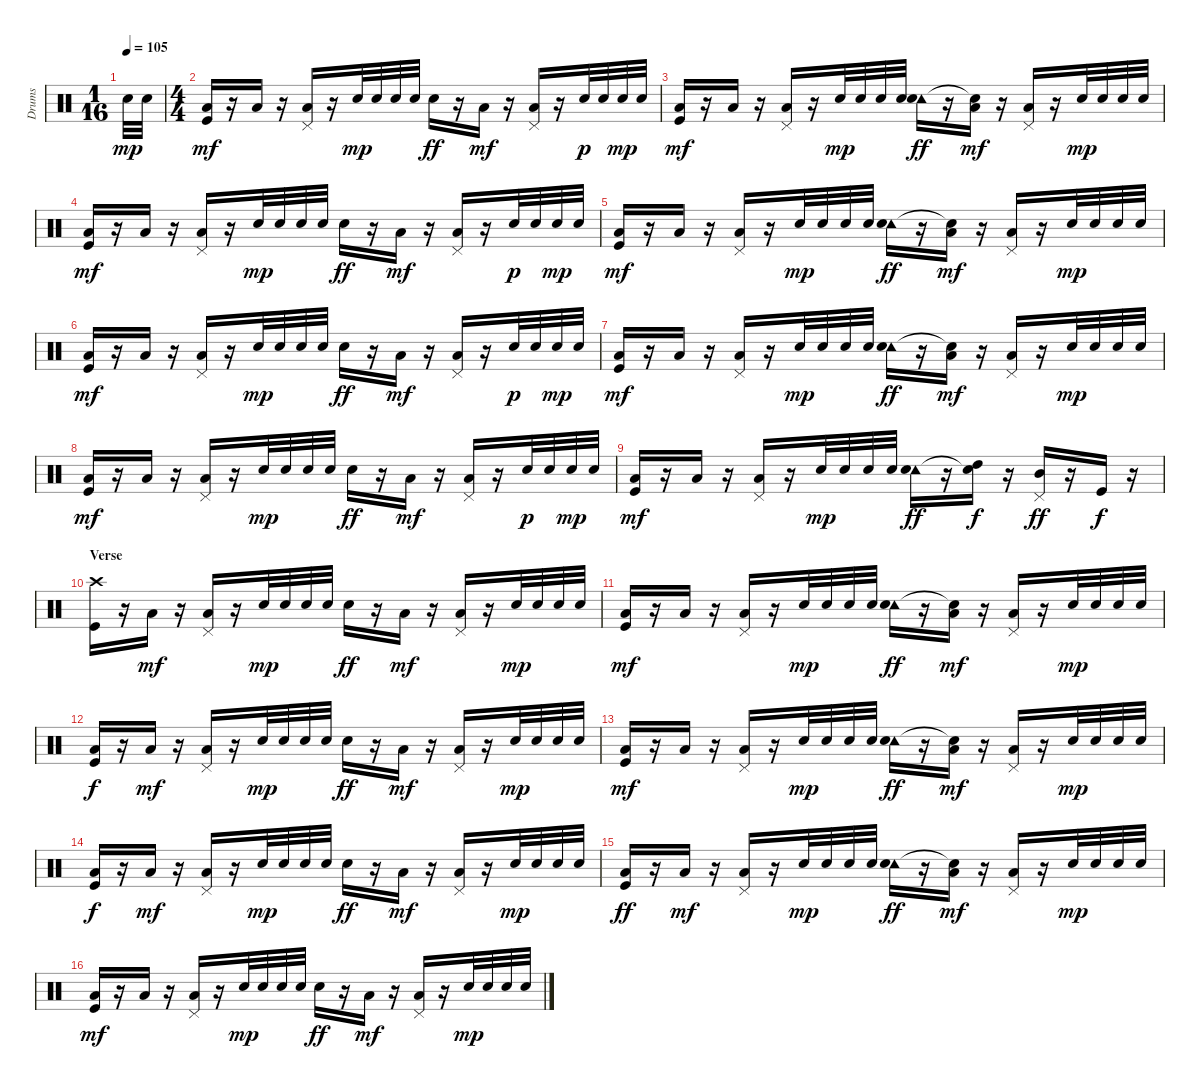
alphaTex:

\track ("Drums" "Drums") {instrument percussion}
\staff {score}
\articulation defaults
\ts (1 16)
\tempo 105
\clef neutral
\ks c "Snare (hit) 2".32{dy mp} "Snare (hit) 2".32
|
\ts (4 4)
("Low Tom (hit)" "Kick (hit)").16{dy mf} r.16 "Low Tom (hit)".16 r.16 ("Pedal Hi-Hat (hit)" "Low Tom (hit)").16 r.16 "Snare (hit) 2".32{dy mp} "Snare (hit) 2".32 "Snare (hit) 2".32 "Snare (hit) 2".32 "Snare (hit) 2".16{dy ff} r.16 "Low Tom (hit)".16{dy mf} r.16 ("Pedal Hi-Hat (hit)" "Low Tom (hit)").16 r.16 "Snare (hit) 2".32{dy p} "Snare (hit) 2".32 "Snare (hit) 2".32{dy mp} "Snare (hit) 2".32 |
("Low Tom (hit)" "Kick (hit)").16{dy mf} r.16 "Low Tom (hit)".16 r.16 ("Pedal Hi-Hat (hit)" "Low Tom (hit)").16 r.16 "Snare (hit) 2".32{dy mp} "Snare (hit) 2".32 "Snare (hit) 2".32 "Snare (hit) 2".32 ("Tambourine (hit)" "Snare (hit) 2").16{dy ff} r.16 ("Snare (hit)"{t} "Low Tom (hit)").16{dy mf} r.16 ("Pedal Hi-Hat (hit)" "Low Tom (hit)").16 r.16 "Snare (hit) 2".32{dy mp} "Snare (hit) 2".32 "Snare (hit) 2".32 "Snare (hit) 2".32 |
("Low Tom (hit)" "Kick (hit)").16{dy mf} r.16 "Low Tom (hit)".16 r.16 ("Pedal Hi-Hat (hit)" "Low Tom (hit)").16 r.16 "Snare (hit) 2".32{dy mp} "Snare (hit) 2".32 "Snare (hit) 2".32 "Snare (hit) 2".32 "Snare (hit) 2".16{dy ff} r.16 "Low Tom (hit)".16{dy mf} r.16 ("Pedal Hi-Hat (hit)" "Low Tom (hit)").16 r.16 "Snare (hit) 2".32{dy p} "Snare (hit) 2".32 "Snare (hit) 2".32{dy mp} "Snare (hit) 2".32 |
("Low Tom (hit)" "Kick (hit)").16{dy mf} r.16 "Low Tom (hit)".16 r.16 ("Pedal Hi-Hat (hit)" "Low Tom (hit)").16 r.16 "Snare (hit) 2".32{dy mp} "Snare (hit) 2".32 "Snare (hit) 2".32 "Snare (hit) 2".32 ("Tambourine (hit)" "Snare (hit) 2").16{dy ff} r.16 ("Snare (hit)"{t} "Low Tom (hit)").16{dy mf} r.16 ("Pedal Hi-Hat (hit)" "Low Tom (hit)").16 r.16 "Snare (hit) 2".32{dy mp} "Snare (hit) 2".32 "Snare (hit) 2".32 "Snare (hit) 2".32 |
("Low Tom (hit)" "Kick (hit)").16{dy mf} r.16 "Low Tom (hit)".16 r.16 ("Pedal Hi-Hat (hit)" "Low Tom (hit)").16 r.16 "Snare (hit) 2".32{dy mp} "Snare (hit) 2".32 "Snare (hit) 2".32 "Snare (hit) 2".32 "Snare (hit) 2".16{dy ff} r.16 "Low Tom (hit)".16{dy mf} r.16 ("Pedal Hi-Hat (hit)" "Low Tom (hit)").16 r.16 "Snare (hit) 2".32{dy p} "Snare (hit) 2".32 "Snare (hit) 2".32{dy mp} "Snare (hit) 2".32 |
("Low Tom (hit)" "Kick (hit)").16{dy mf} r.16 "Low Tom (hit)".16 r.16 ("Pedal Hi-Hat (hit)" "Low Tom (hit)").16 r.16 "Snare (hit) 2".32{dy mp} "Snare (hit) 2".32 "Snare (hit) 2".32 "Snare (hit) 2".32 ("Tambourine (hit)" "Snare (hit) 2").16{dy ff} r.16 ("Snare (hit)"{t} "Low Tom (hit)").16{dy mf} r.16 ("Pedal Hi-Hat (hit)" "Low Tom (hit)").16 r.16 "Snare (hit) 2".32{dy mp} "Snare (hit) 2".32 "Snare (hit) 2".32 "Snare (hit) 2".32 |
("Low Tom (hit)" "Kick (hit)").16{dy mf} r.16 "Low Tom (hit)".16 r.16 ("Pedal Hi-Hat (hit)" "Low Tom (hit)").16 r.16 "Snare (hit) 2".32{dy mp} "Snare (hit) 2".32 "Snare (hit) 2".32 "Snare (hit) 2".32 "Snare (hit) 2".16{dy ff} r.16 "Low Tom (hit)".16{dy mf} r.16 ("Pedal Hi-Hat (hit)" "Low Tom (hit)").16 r.16 "Snare (hit) 2".32{dy p} "Snare (hit) 2".32 "Snare (hit) 2".32{dy mp} "Snare (hit) 2".32 |
("Low Tom (hit)" "Kick (hit)").16{dy mf} r.16 "Low Tom (hit)".16 r.16 ("Pedal Hi-Hat (hit)" "Low Tom (hit)").16 r.16 "Snare (hit) 2".32{dy mp} "Snare (hit) 2".32 "Snare (hit) 2".32 "Snare (hit) 2".32 ("Tambourine (hit)" "Snare (hit) 2").16{dy ff} r.16 ("Snare (hit)"{t} "High Tom (hit)").16{dy f} r.16 ("Pedal Hi-Hat (hit)" "Mid Tom (hit)").16{dy ff} r.16 "Kick (hit)".16{dy f} r.16 |
\section ("" "Verse")
("Crash high (hit)" "Kick (hit)").16 r.16 "Low Tom (hit)".16{dy mf} r.16 ("Pedal Hi-Hat (hit)" "Low Tom (hit)").16 r.16 "Snare (hit) 2".32{dy mp} "Snare (hit) 2".32 "Snare (hit) 2".32 "Snare (hit) 2".32 "Snare (hit) 2".16{dy ff} r.16 "Low Tom (hit)".16{dy mf} r.16 ("Pedal Hi-Hat (hit)" "Low Tom (hit)").16 r.16 "Snare (hit) 2".32{dy mp} "Snare (hit) 2".32 "Snare (hit) 2".32 "Snare (hit) 2".32 |
("Low Tom (hit)" "Kick (hit)").16{dy mf} r.16 "Low Tom (hit)".16 r.16 ("Pedal Hi-Hat (hit)" "Low Tom (hit)").16 r.16 "Snare (hit) 2".32{dy mp} "Snare (hit) 2".32 "Snare (hit) 2".32 "Snare (hit) 2".32 ("Tambourine (hit)" "Snare (hit) 2").16{dy ff} r.16 ("Snare (hit)"{t} "Low Tom (hit)").16{dy mf} r.16 ("Pedal Hi-Hat (hit)" "Low Tom (hit)").16 r.16 "Snare (hit) 2".32{dy mp} "Snare (hit) 2".32 "Snare (hit) 2".32 "Snare (hit) 2".32 |
("Low Tom (hit)" "Kick (hit)").16{dy f} r.16 "Low Tom (hit)".16{dy mf} r.16 ("Pedal Hi-Hat (hit)" "Low Tom (hit)").16 r.16 "Snare (hit) 2".32{dy mp} "Snare (hit) 2".32 "Snare (hit) 2".32 "Snare (hit) 2".32 "Snare (hit) 2".16{dy ff} r.16 "Low Tom (hit)".16{dy mf} r.16 ("Pedal Hi-Hat (hit)" "Low Tom (hit)").16 r.16 "Snare (hit) 2".32{dy mp} "Snare (hit) 2".32 "Snare (hit) 2".32 "Snare (hit) 2".32 |
("Low Tom (hit)" "Kick (hit)").16{dy mf} r.16 "Low Tom (hit)".16 r.16 ("Pedal Hi-Hat (hit)" "Low Tom (hit)").16 r.16 "Snare (hit) 2".32{dy mp} "Snare (hit) 2".32 "Snare (hit) 2".32 "Snare (hit) 2".32 ("Tambourine (hit)" "Snare (hit) 2").16{dy ff} r.16 ("Snare (hit)"{t} "Low Tom (hit)").16{dy mf} r.16 ("Pedal Hi-Hat (hit)" "Low Tom (hit)").16 r.16 "Snare (hit) 2".32{dy mp} "Snare (hit) 2".32 "Snare (hit) 2".32 "Snare (hit) 2".32 |
("Low Tom (hit)" "Kick (hit)").16{dy f} r.16 "Low Tom (hit)".16{dy mf} r.16 ("Pedal Hi-Hat (hit)" "Low Tom (hit)").16 r.16 "Snare (hit) 2".32{dy mp} "Snare (hit) 2".32 "Snare (hit) 2".32 "Snare (hit) 2".32 "Snare (hit) 2".16{dy ff} r.16 "Low Tom (hit)".16{dy mf} r.16 ("Pedal Hi-Hat (hit)" "Low Tom (hit)").16 r.16 "Snare (hit) 2".32{dy mp} "Snare (hit) 2".32 "Snare (hit) 2".32 "Snare (hit) 2".32 |
("Low Tom (hit)" "Kick (hit)").16{dy ff} r.16 "Low Tom (hit)".16{dy mf} r.16 ("Pedal Hi-Hat (hit)" "Low Tom (hit)").16 r.16 "Snare (hit) 2".32{dy mp} "Snare (hit) 2".32 "Snare (hit) 2".32 "Snare (hit) 2".32 ("Tambourine (hit)" "Snare (hit) 2").16{dy ff} r.16 ("Snare (hit)"{t} "Low Tom (hit)").16{dy mf} r.16 ("Pedal Hi-Hat (hit)" "Low Tom (hit)").16 r.16 "Snare (hit) 2".32{dy mp} "Snare (hit) 2".32 "Snare (hit) 2".32 "Snare (hit) 2".32 |
("Low Tom (hit)" "Kick (hit)").16{dy mf} r.16 "Low Tom (hit)".16 r.16 ("Pedal Hi-Hat (hit)" "Low Tom (hit)").16 r.16 "Snare (hit) 2".32{dy mp} "Snare (hit) 2".32 "Snare (hit) 2".32 "Snare (hit) 2".32 "Snare (hit) 2".16{dy ff} r.16 "Low Tom (hit)".16{dy mf} r.16 ("Pedal Hi-Hat (hit)" "Low Tom (hit)").16 r.16 "Snare (hit) 2".32{dy mp} "Snare (hit) 2".32 "Snare (hit) 2".32 "Snare (hit) 2".32
